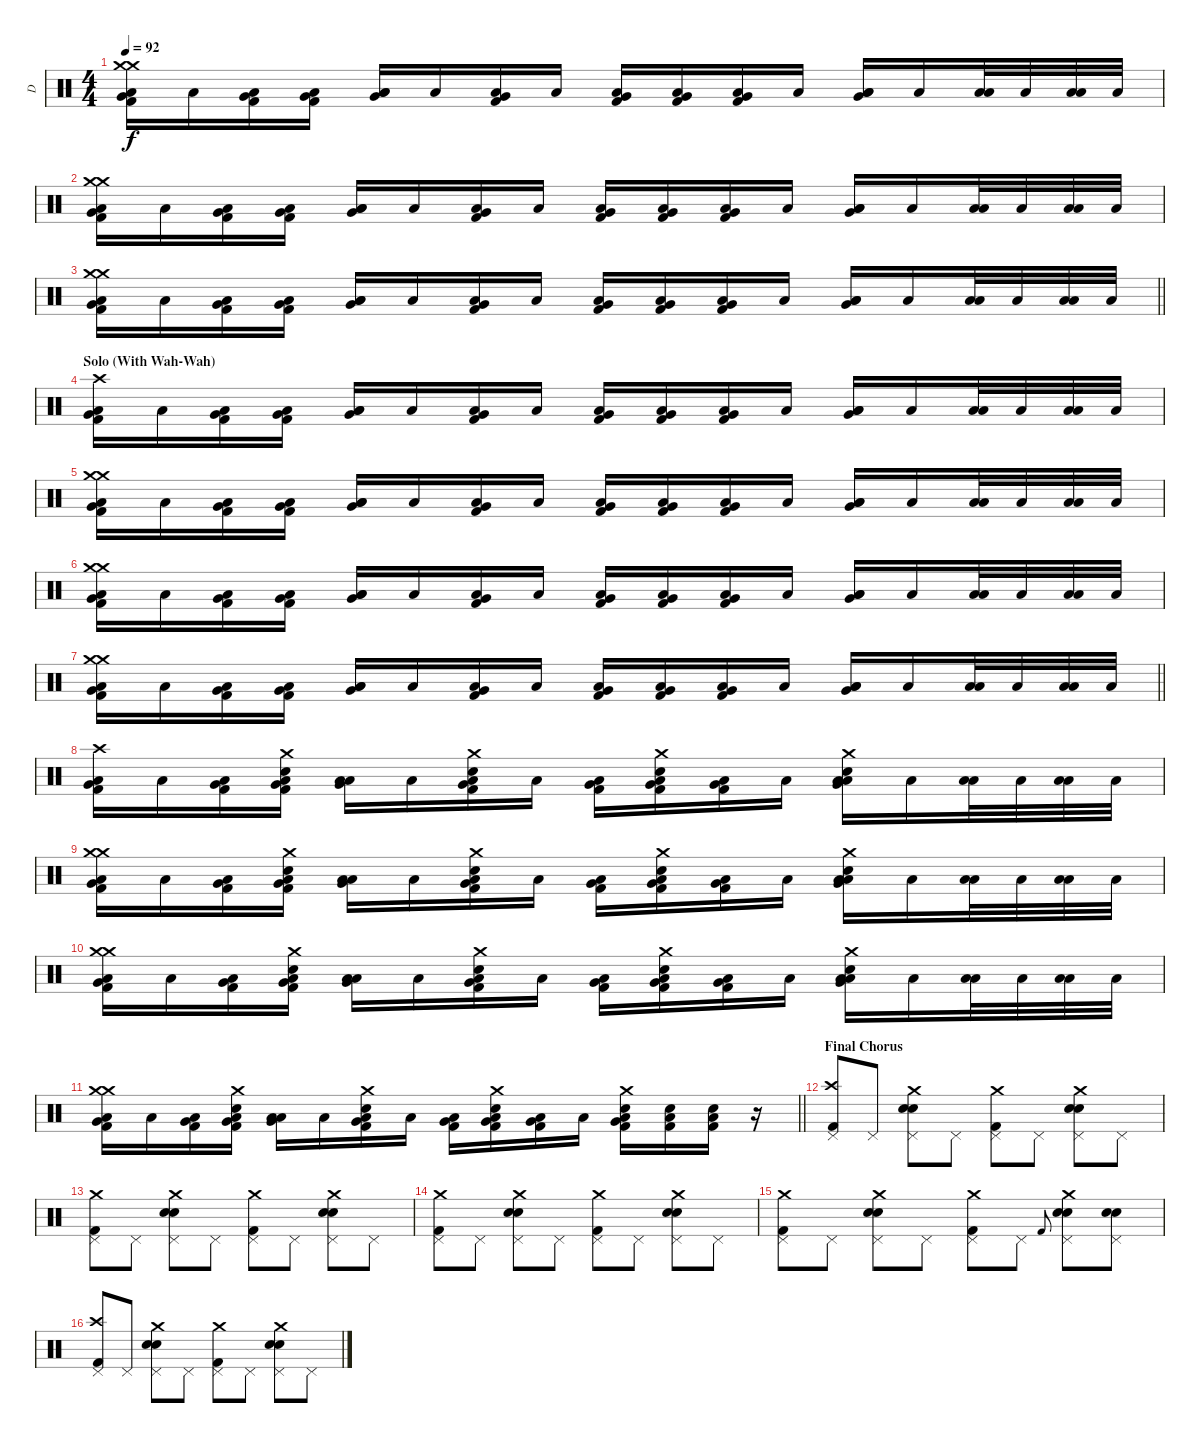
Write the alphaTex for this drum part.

\track ("D" "D") {instrument percussion}
\staff {score}
\articulation defaults
\ts (4 4)
\tempo 92
\clef neutral
\ks c
("Crash medium (hit)" "Crash medium (hit)" "Very Low Tom (hit)" "Kick (hit) 2" "Low Floor Tom (hit)").16{dy f} "Low Floor Tom (hit)".16 ("Very Low Tom (hit)" "Kick (hit) 2" "Low Floor Tom (hit)").16 ("Very Low Tom (hit)" "Kick (hit) 2" "Low Floor Tom (hit)").16 ("Very Low Tom (hit)" "Low Tom (hit)" "Low Floor Tom (hit)").16 "Low Floor Tom (hit)".16 ("Very Low Tom (hit)" "Kick (hit) 2" "Low Floor Tom (hit)").16 "Low Floor Tom (hit)".16 ("Very Low Tom (hit)" "Kick (hit) 2" "Low Floor Tom (hit)").16 ("Very Low Tom (hit)" "Kick (hit) 2" "Low Floor Tom (hit)").16 ("Very Low Tom (hit)" "Kick (hit) 2" "Low Floor Tom (hit)").16 "Low Floor Tom (hit)".16 ("Very Low Tom (hit)" "Low Tom (hit)" "Low Floor Tom (hit)").16 "Low Floor Tom (hit)".16 ("Low Tom (hit)" "Low Floor Tom (hit)").32 "Low Tom (hit)".32 ("Low Tom (hit)" "Low Floor Tom (hit)").32 "Low Tom (hit)".32 |
("Crash medium (hit)" "Crash medium (hit)" "Very Low Tom (hit)" "Kick (hit) 2" "Low Floor Tom (hit)").16 "Low Floor Tom (hit)".16 ("Very Low Tom (hit)" "Kick (hit) 2" "Low Floor Tom (hit)").16 ("Very Low Tom (hit)" "Kick (hit) 2" "Low Floor Tom (hit)").16 ("Very Low Tom (hit)" "Low Tom (hit)" "Low Floor Tom (hit)").16 "Low Floor Tom (hit)".16 ("Very Low Tom (hit)" "Kick (hit) 2" "Low Floor Tom (hit)").16 "Low Floor Tom (hit)".16 ("Very Low Tom (hit)" "Kick (hit) 2" "Low Floor Tom (hit)").16 ("Very Low Tom (hit)" "Kick (hit) 2" "Low Floor Tom (hit)").16 ("Very Low Tom (hit)" "Kick (hit) 2" "Low Floor Tom (hit)").16 "Low Floor Tom (hit)".16 ("Very Low Tom (hit)" "Low Tom (hit)" "Low Floor Tom (hit)").16 "Low Floor Tom (hit)".16 ("Low Tom (hit)" "Low Floor Tom (hit)").32 "Low Tom (hit)".32 ("Low Tom (hit)" "Low Floor Tom (hit)").32 "Low Tom (hit)".32 |
\barLineRight lightlight
("Crash medium (hit)" "Crash medium (hit)" "Very Low Tom (hit)" "Kick (hit) 2" "Low Floor Tom (hit)").16 "Low Floor Tom (hit)".16 ("Very Low Tom (hit)" "Kick (hit) 2" "Low Floor Tom (hit)").16 ("Very Low Tom (hit)" "Kick (hit) 2" "Low Floor Tom (hit)").16 ("Very Low Tom (hit)" "Low Tom (hit)" "Low Floor Tom (hit)").16 "Low Floor Tom (hit)".16 ("Very Low Tom (hit)" "Kick (hit) 2" "Low Floor Tom (hit)").16 "Low Floor Tom (hit)".16 ("Very Low Tom (hit)" "Kick (hit) 2" "Low Floor Tom (hit)").16 ("Very Low Tom (hit)" "Kick (hit) 2" "Low Floor Tom (hit)").16 ("Very Low Tom (hit)" "Kick (hit) 2" "Low Floor Tom (hit)").16 "Low Floor Tom (hit)".16 ("Very Low Tom (hit)" "Low Tom (hit)" "Low Floor Tom (hit)").16 "Low Floor Tom (hit)".16 ("Low Tom (hit)" "Low Floor Tom (hit)").32 "Low Tom (hit)".32 ("Low Tom (hit)" "Low Floor Tom (hit)").32 "Low Tom (hit)".32 |
\section ("" "Solo (With Wah-Wah)")
("Crash high (hit)" "Very Low Tom (hit)" "Kick (hit) 2" "Low Floor Tom (hit)").16 "Low Floor Tom (hit)".16 ("Very Low Tom (hit)" "Kick (hit) 2" "Low Floor Tom (hit)").16 ("Very Low Tom (hit)" "Kick (hit) 2" "Low Floor Tom (hit)").16 ("Very Low Tom (hit)" "Low Tom (hit)" "Low Floor Tom (hit)").16 "Low Floor Tom (hit)".16 ("Very Low Tom (hit)" "Kick (hit) 2" "Low Floor Tom (hit)").16 "Low Floor Tom (hit)".16 ("Very Low Tom (hit)" "Kick (hit) 2" "Low Floor Tom (hit)").16 ("Very Low Tom (hit)" "Kick (hit) 2" "Low Floor Tom (hit)").16 ("Very Low Tom (hit)" "Kick (hit) 2" "Low Floor Tom (hit)").16 "Low Floor Tom (hit)".16 ("Very Low Tom (hit)" "Low Tom (hit)" "Low Floor Tom (hit)").16 "Low Floor Tom (hit)".16 ("Low Tom (hit)" "Low Floor Tom (hit)").32 "Low Tom (hit)".32 ("Low Tom (hit)" "Low Floor Tom (hit)").32 "Low Tom (hit)".32 |
("Crash medium (hit)" "Crash medium (hit)" "Very Low Tom (hit)" "Kick (hit) 2" "Low Floor Tom (hit)").16 "Low Floor Tom (hit)".16 ("Very Low Tom (hit)" "Kick (hit) 2" "Low Floor Tom (hit)").16 ("Very Low Tom (hit)" "Kick (hit) 2" "Low Floor Tom (hit)").16 ("Very Low Tom (hit)" "Low Tom (hit)" "Low Floor Tom (hit)").16 "Low Floor Tom (hit)".16 ("Very Low Tom (hit)" "Kick (hit) 2" "Low Floor Tom (hit)").16 "Low Floor Tom (hit)".16 ("Very Low Tom (hit)" "Kick (hit) 2" "Low Floor Tom (hit)").16 ("Very Low Tom (hit)" "Kick (hit) 2" "Low Floor Tom (hit)").16 ("Very Low Tom (hit)" "Kick (hit) 2" "Low Floor Tom (hit)").16 "Low Floor Tom (hit)".16 ("Very Low Tom (hit)" "Low Tom (hit)" "Low Floor Tom (hit)").16 "Low Floor Tom (hit)".16 ("Low Tom (hit)" "Low Floor Tom (hit)").32 "Low Tom (hit)".32 ("Low Tom (hit)" "Low Floor Tom (hit)").32 "Low Tom (hit)".32 |
("Crash medium (hit)" "Crash medium (hit)" "Very Low Tom (hit)" "Kick (hit) 2" "Low Floor Tom (hit)").16 "Low Floor Tom (hit)".16 ("Very Low Tom (hit)" "Kick (hit) 2" "Low Floor Tom (hit)").16 ("Very Low Tom (hit)" "Kick (hit) 2" "Low Floor Tom (hit)").16 ("Very Low Tom (hit)" "Low Tom (hit)" "Low Floor Tom (hit)").16 "Low Floor Tom (hit)".16 ("Very Low Tom (hit)" "Kick (hit) 2" "Low Floor Tom (hit)").16 "Low Floor Tom (hit)".16 ("Very Low Tom (hit)" "Kick (hit) 2" "Low Floor Tom (hit)").16 ("Very Low Tom (hit)" "Kick (hit) 2" "Low Floor Tom (hit)").16 ("Very Low Tom (hit)" "Kick (hit) 2" "Low Floor Tom (hit)").16 "Low Floor Tom (hit)".16 ("Very Low Tom (hit)" "Low Tom (hit)" "Low Floor Tom (hit)").16 "Low Floor Tom (hit)".16 ("Low Tom (hit)" "Low Floor Tom (hit)").32 "Low Tom (hit)".32 ("Low Tom (hit)" "Low Floor Tom (hit)").32 "Low Tom (hit)".32 |
\barLineRight lightlight
("Crash medium (hit)" "Crash medium (hit)" "Very Low Tom (hit)" "Kick (hit) 2" "Low Floor Tom (hit)").16 "Low Floor Tom (hit)".16 ("Very Low Tom (hit)" "Kick (hit) 2" "Low Floor Tom (hit)").16 ("Very Low Tom (hit)" "Kick (hit) 2" "Low Floor Tom (hit)").16 ("Very Low Tom (hit)" "Low Tom (hit)" "Low Floor Tom (hit)").16 "Low Floor Tom (hit)".16 ("Very Low Tom (hit)" "Kick (hit) 2" "Low Floor Tom (hit)").16 "Low Floor Tom (hit)".16 ("Very Low Tom (hit)" "Kick (hit) 2" "Low Floor Tom (hit)").16 ("Very Low Tom (hit)" "Kick (hit) 2" "Low Floor Tom (hit)").16 ("Very Low Tom (hit)" "Kick (hit) 2" "Low Floor Tom (hit)").16 "Low Floor Tom (hit)".16 ("Very Low Tom (hit)" "Low Tom (hit)" "Low Floor Tom (hit)").16 "Low Floor Tom (hit)".16 ("Low Tom (hit)" "Low Floor Tom (hit)").32 "Low Tom (hit)".32 ("Low Tom (hit)" "Low Floor Tom (hit)").32 "Low Tom (hit)".32 |
("Crash high (hit)" "Very Low Tom (hit)" "Kick (hit) 2" "Low Floor Tom (hit)").16 "Low Floor Tom (hit)".16 ("Very Low Tom (hit)" "Kick (hit) 2" "Low Floor Tom (hit)").16 ("Crash medium (hit)" "Electric Snare (hit)" "Very Low Tom (hit)" "Kick (hit) 2" "Low Floor Tom (hit)").16 ("Very Low Tom (hit)" "Low Tom (hit)" "Low Floor Tom (hit)").16 "Low Floor Tom (hit)".16 ("Crash medium (hit)" "Electric Snare (hit)" "Very Low Tom (hit)" "Kick (hit) 2" "Low Floor Tom (hit)").16 "Low Floor Tom (hit)".16 ("Very Low Tom (hit)" "Kick (hit) 2" "Low Floor Tom (hit)").16 ("Crash medium (hit)" "Electric Snare (hit)" "Very Low Tom (hit)" "Kick (hit) 2" "Low Floor Tom (hit)").16 ("Very Low Tom (hit)" "Kick (hit) 2" "Low Floor Tom (hit)").16 "Low Floor Tom (hit)".16 ("Crash medium (hit)" "Electric Snare (hit)" "Very Low Tom (hit)" "Low Tom (hit)" "Low Floor Tom (hit)").16 "Low Floor Tom (hit)".16 ("Low Tom (hit)" "Low Floor Tom (hit)").32 "Low Tom (hit)".32 ("Low Tom (hit)" "Low Floor Tom (hit)").32 "Low Tom (hit)".32 |
("Crash medium (hit)" "Crash medium (hit)" "Very Low Tom (hit)" "Kick (hit) 2" "Low Floor Tom (hit)").16 "Low Floor Tom (hit)".16 ("Very Low Tom (hit)" "Kick (hit) 2" "Low Floor Tom (hit)").16 ("Crash medium (hit)" "Electric Snare (hit)" "Very Low Tom (hit)" "Kick (hit) 2" "Low Floor Tom (hit)").16 ("Very Low Tom (hit)" "Low Tom (hit)" "Low Floor Tom (hit)").16 "Low Floor Tom (hit)".16 ("Crash medium (hit)" "Electric Snare (hit)" "Very Low Tom (hit)" "Kick (hit) 2" "Low Floor Tom (hit)").16 "Low Floor Tom (hit)".16 ("Very Low Tom (hit)" "Kick (hit) 2" "Low Floor Tom (hit)").16 ("Crash medium (hit)" "Electric Snare (hit)" "Very Low Tom (hit)" "Kick (hit) 2" "Low Floor Tom (hit)").16 ("Very Low Tom (hit)" "Kick (hit) 2" "Low Floor Tom (hit)").16 "Low Floor Tom (hit)".16 ("Crash medium (hit)" "Electric Snare (hit)" "Very Low Tom (hit)" "Low Tom (hit)" "Low Floor Tom (hit)").16 "Low Floor Tom (hit)".16 ("Low Tom (hit)" "Low Floor Tom (hit)").32 "Low Tom (hit)".32 ("Low Tom (hit)" "Low Floor Tom (hit)").32 "Low Tom (hit)".32 |
("Crash medium (hit)" "Crash medium (hit)" "Very Low Tom (hit)" "Kick (hit) 2" "Low Floor Tom (hit)").16 "Low Floor Tom (hit)".16 ("Very Low Tom (hit)" "Kick (hit) 2" "Low Floor Tom (hit)").16 ("Crash medium (hit)" "Electric Snare (hit)" "Very Low Tom (hit)" "Kick (hit) 2" "Low Floor Tom (hit)").16 ("Very Low Tom (hit)" "Low Tom (hit)" "Low Floor Tom (hit)").16 "Low Floor Tom (hit)".16 ("Crash medium (hit)" "Electric Snare (hit)" "Very Low Tom (hit)" "Kick (hit) 2" "Low Floor Tom (hit)").16 "Low Floor Tom (hit)".16 ("Very Low Tom (hit)" "Kick (hit) 2" "Low Floor Tom (hit)").16 ("Crash medium (hit)" "Electric Snare (hit)" "Very Low Tom (hit)" "Kick (hit) 2" "Low Floor Tom (hit)").16 ("Very Low Tom (hit)" "Kick (hit) 2" "Low Floor Tom (hit)").16 "Low Floor Tom (hit)".16 ("Crash medium (hit)" "Electric Snare (hit)" "Very Low Tom (hit)" "Low Tom (hit)" "Low Floor Tom (hit)").16 "Low Floor Tom (hit)".16 ("Low Tom (hit)" "Low Floor Tom (hit)").32 "Low Tom (hit)".32 ("Low Tom (hit)" "Low Floor Tom (hit)").32 "Low Tom (hit)".32 |
\barLineRight lightlight
("Crash medium (hit)" "Crash medium (hit)" "Very Low Tom (hit)" "Kick (hit) 2" "Low Floor Tom (hit)").16 "Low Floor Tom (hit)".16 ("Very Low Tom (hit)" "Kick (hit) 2" "Low Floor Tom (hit)").16 ("Crash medium (hit)" "Electric Snare (hit)" "Very Low Tom (hit)" "Kick (hit) 2" "Low Floor Tom (hit)").16 ("Very Low Tom (hit)" "Low Tom (hit)" "Low Floor Tom (hit)").16 "Low Floor Tom (hit)".16 ("Crash medium (hit)" "Electric Snare (hit)" "Very Low Tom (hit)" "Kick (hit) 2" "Low Floor Tom (hit)").16 "Low Floor Tom (hit)".16 ("Very Low Tom (hit)" "Kick (hit) 2" "Low Floor Tom (hit)").16 ("Crash medium (hit)" "Electric Snare (hit)" "Very Low Tom (hit)" "Kick (hit) 2" "Low Floor Tom (hit)").16 ("Very Low Tom (hit)" "Kick (hit) 2" "Low Floor Tom (hit)").16 "Low Floor Tom (hit)".16 ("Crash medium (hit)" "Electric Snare (hit)" "Very Low Tom (hit)" "Kick (hit) 2" "Low Floor Tom (hit)").16 ("Electric Snare (hit)" "Kick (hit) 2" "Low Floor Tom (hit)").16 ("Electric Snare (hit)" "Kick (hit) 2" "Low Floor Tom (hit)").16 r.16 |
\section ("" "Final Chorus")
("Crash high (hit)" "Kick (hit) 2" "Pedal Hi-Hat (hit)").8 "Pedal Hi-Hat (hit)".8 ("Crash medium (hit)" "Electric Snare (hit)" "Electric Snare (hit)" "Pedal Hi-Hat (hit)").8 "Pedal Hi-Hat (hit)".8 ("Crash medium (hit)" "Kick (hit) 2" "Pedal Hi-Hat (hit)").8 "Pedal Hi-Hat (hit)".8 ("Crash medium (hit)" "Electric Snare (hit)" "Electric Snare (hit)" "Pedal Hi-Hat (hit)").8 "Pedal Hi-Hat (hit)".8 |
("Crash medium (hit)" "Kick (hit) 2" "Pedal Hi-Hat (hit)").8 "Pedal Hi-Hat (hit)".8 ("Crash medium (hit)" "Electric Snare (hit)" "Electric Snare (hit)" "Pedal Hi-Hat (hit)").8 "Pedal Hi-Hat (hit)".8 ("Crash medium (hit)" "Kick (hit) 2" "Pedal Hi-Hat (hit)").8 "Pedal Hi-Hat (hit)".8 ("Crash medium (hit)" "Electric Snare (hit)" "Electric Snare (hit)" "Pedal Hi-Hat (hit)").8 "Pedal Hi-Hat (hit)".8 |
("Crash medium (hit)" "Kick (hit) 2" "Pedal Hi-Hat (hit)").8 "Pedal Hi-Hat (hit)".8 ("Crash medium (hit)" "Electric Snare (hit)" "Electric Snare (hit)" "Pedal Hi-Hat (hit)").8 "Pedal Hi-Hat (hit)".8 ("Crash medium (hit)" "Kick (hit) 2" "Pedal Hi-Hat (hit)").8 "Pedal Hi-Hat (hit)".8 ("Crash medium (hit)" "Electric Snare (hit)" "Electric Snare (hit)" "Pedal Hi-Hat (hit)").8 "Pedal Hi-Hat (hit)".8 |
("Crash medium (hit)" "Kick (hit) 2" "Pedal Hi-Hat (hit)").8 "Pedal Hi-Hat (hit)".8 ("Crash medium (hit)" "Electric Snare (hit)" "Electric Snare (hit)" "Pedal Hi-Hat (hit)").8 "Pedal Hi-Hat (hit)".8 ("Crash medium (hit)" "Kick (hit) 2" "Pedal Hi-Hat (hit)").8 "Pedal Hi-Hat (hit)".8 "Kick (hit) 2".8{gr onbeat} ("Crash medium (hit)" "Electric Snare (hit)" "Electric Snare (hit)" "Pedal Hi-Hat (hit)").8 ("Electric Snare (hit)" "Electric Snare (hit)" "Pedal Hi-Hat (hit)").8 |
("Crash high (hit)" "Kick (hit) 2" "Pedal Hi-Hat (hit)").8 "Pedal Hi-Hat (hit)".8 ("Crash medium (hit)" "Electric Snare (hit)" "Electric Snare (hit)" "Pedal Hi-Hat (hit)").8 "Pedal Hi-Hat (hit)".8 ("Crash medium (hit)" "Kick (hit) 2" "Pedal Hi-Hat (hit)").8 "Pedal Hi-Hat (hit)".8 ("Crash medium (hit)" "Electric Snare (hit)" "Electric Snare (hit)" "Pedal Hi-Hat (hit)").8 "Pedal Hi-Hat (hit)".8
